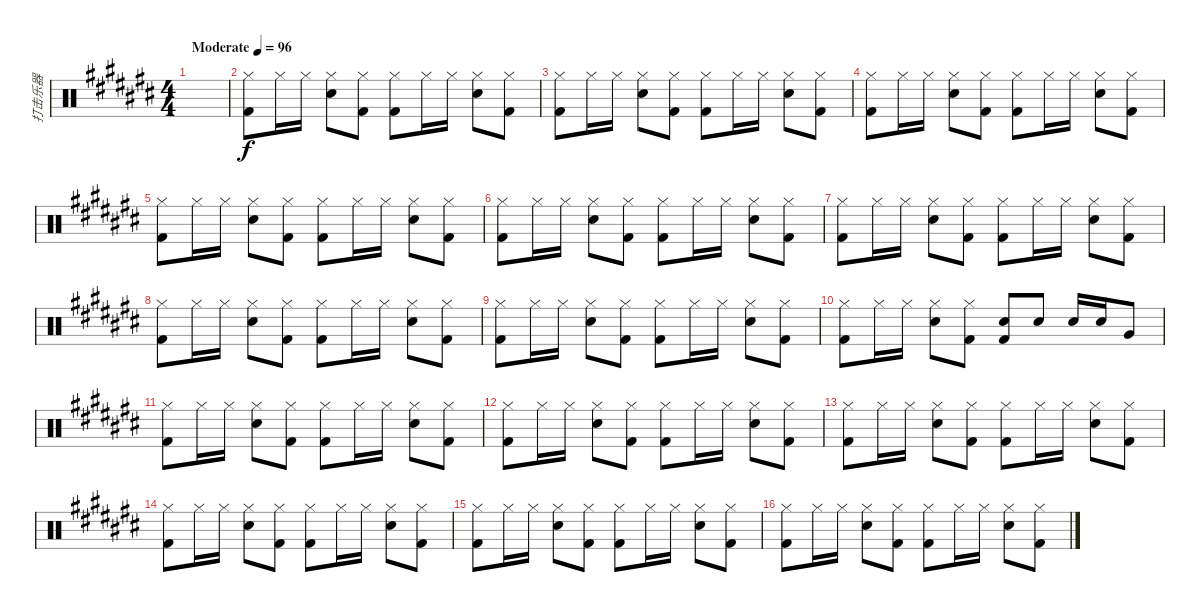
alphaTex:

\track ("打击乐器" "打击乐器") {instrument percussion}
\staff {score}
\articulation defaults
\ts (4 4)
\tempo (96 "Moderate")
\clef neutral
\ks c#
|
("Hi-Hat (closed)" "Kick (hit) 2").8 "Hi-Hat (closed)".16 "Hi-Hat (closed)".16 ("Hi-Hat (closed)" "Snare (hit) 2").8 ("Hi-Hat (closed)" "Kick (hit) 2").8 ("Hi-Hat (closed)" "Kick (hit) 2").8 "Hi-Hat (closed)".16 "Hi-Hat (closed)".16 ("Hi-Hat (closed)" "Snare (hit) 2").8 ("Hi-Hat (closed)" "Kick (hit) 2").8 |
("Hi-Hat (closed)" "Kick (hit) 2").8 "Hi-Hat (closed)".16 "Hi-Hat (closed)".16 ("Hi-Hat (closed)" "Snare (hit) 2").8 ("Hi-Hat (closed)" "Kick (hit) 2").8 ("Hi-Hat (closed)" "Kick (hit) 2").8 "Hi-Hat (closed)".16 "Hi-Hat (closed)".16 ("Hi-Hat (closed)" "Snare (hit) 2").8 ("Hi-Hat (closed)" "Kick (hit) 2").8 |
("Hi-Hat (closed)" "Kick (hit) 2").8 "Hi-Hat (closed)".16 "Hi-Hat (closed)".16 ("Hi-Hat (closed)" "Snare (hit) 2").8 ("Hi-Hat (closed)" "Kick (hit) 2").8 ("Hi-Hat (closed)" "Kick (hit) 2").8 "Hi-Hat (closed)".16 "Hi-Hat (closed)".16 ("Hi-Hat (closed)" "Snare (hit) 2").8 ("Hi-Hat (closed)" "Kick (hit) 2").8 |
("Hi-Hat (closed)" "Kick (hit) 2").8 "Hi-Hat (closed)".16 "Hi-Hat (closed)".16 ("Hi-Hat (closed)" "Snare (hit) 2").8 ("Hi-Hat (closed)" "Kick (hit) 2").8 ("Hi-Hat (closed)" "Kick (hit) 2").8 "Hi-Hat (closed)".16 "Hi-Hat (closed)".16 ("Hi-Hat (closed)" "Snare (hit) 2").8 ("Hi-Hat (closed)" "Kick (hit) 2").8 |
("Hi-Hat (closed)" "Kick (hit) 2").8 "Hi-Hat (closed)".16 "Hi-Hat (closed)".16 ("Hi-Hat (closed)" "Snare (hit) 2").8 ("Hi-Hat (closed)" "Kick (hit) 2").8 ("Hi-Hat (closed)" "Kick (hit) 2").8 "Hi-Hat (closed)".16 "Hi-Hat (closed)".16 ("Hi-Hat (closed)" "Snare (hit) 2").8 ("Hi-Hat (closed)" "Kick (hit) 2").8 |
("Hi-Hat (closed)" "Kick (hit) 2").8 "Hi-Hat (closed)".16 "Hi-Hat (closed)".16 ("Hi-Hat (closed)" "Snare (hit) 2").8 ("Hi-Hat (closed)" "Kick (hit) 2").8 ("Hi-Hat (closed)" "Kick (hit) 2").8 "Hi-Hat (closed)".16 "Hi-Hat (closed)".16 ("Hi-Hat (closed)" "Snare (hit) 2").8 ("Hi-Hat (closed)" "Kick (hit) 2").8 |
("Hi-Hat (closed)" "Kick (hit) 2").8 "Hi-Hat (closed)".16 "Hi-Hat (closed)".16 ("Hi-Hat (closed)" "Snare (hit) 2").8 ("Hi-Hat (closed)" "Kick (hit) 2").8 ("Hi-Hat (closed)" "Kick (hit) 2").8 "Hi-Hat (closed)".16 "Hi-Hat (closed)".16 ("Hi-Hat (closed)" "Snare (hit) 2").8 ("Hi-Hat (closed)" "Kick (hit) 2").8 |
("Hi-Hat (closed)" "Kick (hit) 2").8 "Hi-Hat (closed)".16 "Hi-Hat (closed)".16 ("Hi-Hat (closed)" "Snare (hit) 2").8 ("Hi-Hat (closed)" "Kick (hit) 2").8 ("Hi-Hat (closed)" "Kick (hit) 2").8 "Hi-Hat (closed)".16 "Hi-Hat (closed)".16 ("Hi-Hat (closed)" "Snare (hit) 2").8 ("Hi-Hat (closed)" "Kick (hit) 2").8 |
("Hi-Hat (closed)" "Kick (hit) 2").8 "Hi-Hat (closed)".16 "Hi-Hat (closed)".16 ("Hi-Hat (closed)" "Snare (hit) 2").8 ("Hi-Hat (closed)" "Kick (hit) 2").8 ("Snare (hit) 2" "Kick (hit) 2").8 "Snare (hit) 2".8 "Snare (hit) 2".16 "Snare (hit) 2".16 "Very Low Tom (hit)".8 |
("Hi-Hat (closed)" "Kick (hit) 2").8 "Hi-Hat (closed)".16 "Hi-Hat (closed)".16 ("Hi-Hat (closed)" "Snare (hit) 2").8 ("Hi-Hat (closed)" "Kick (hit) 2").8 ("Hi-Hat (closed)" "Kick (hit) 2").8 "Hi-Hat (closed)".16 "Hi-Hat (closed)".16 ("Hi-Hat (closed)" "Snare (hit) 2").8 ("Hi-Hat (closed)" "Kick (hit) 2").8 |
("Hi-Hat (closed)" "Kick (hit) 2").8 "Hi-Hat (closed)".16 "Hi-Hat (closed)".16 ("Hi-Hat (closed)" "Snare (hit) 2").8 ("Hi-Hat (closed)" "Kick (hit) 2").8 ("Hi-Hat (closed)" "Kick (hit) 2").8 "Hi-Hat (closed)".16 "Hi-Hat (closed)".16 ("Hi-Hat (closed)" "Snare (hit) 2").8 ("Hi-Hat (closed)" "Kick (hit) 2").8 |
("Hi-Hat (closed)" "Kick (hit) 2").8 "Hi-Hat (closed)".16 "Hi-Hat (closed)".16 ("Hi-Hat (closed)" "Snare (hit) 2").8 ("Hi-Hat (closed)" "Kick (hit) 2").8 ("Hi-Hat (closed)" "Kick (hit) 2").8 "Hi-Hat (closed)".16 "Hi-Hat (closed)".16 ("Hi-Hat (closed)" "Snare (hit) 2").8 ("Hi-Hat (closed)" "Kick (hit) 2").8 |
("Hi-Hat (closed)" "Kick (hit) 2").8 "Hi-Hat (closed)".16 "Hi-Hat (closed)".16 ("Hi-Hat (closed)" "Snare (hit) 2").8 ("Hi-Hat (closed)" "Kick (hit) 2").8 ("Hi-Hat (closed)" "Kick (hit) 2").8 "Hi-Hat (closed)".16 "Hi-Hat (closed)".16 ("Hi-Hat (closed)" "Snare (hit) 2").8 ("Hi-Hat (closed)" "Kick (hit) 2").8 |
("Hi-Hat (closed)" "Kick (hit) 2").8 "Hi-Hat (closed)".16 "Hi-Hat (closed)".16 ("Hi-Hat (closed)" "Snare (hit) 2").8 ("Hi-Hat (closed)" "Kick (hit) 2").8 ("Hi-Hat (closed)" "Kick (hit) 2").8 "Hi-Hat (closed)".16 "Hi-Hat (closed)".16 ("Hi-Hat (closed)" "Snare (hit) 2").8 ("Hi-Hat (closed)" "Kick (hit) 2").8 |
("Hi-Hat (closed)" "Kick (hit) 2").8 "Hi-Hat (closed)".16 "Hi-Hat (closed)".16 ("Hi-Hat (closed)" "Snare (hit) 2").8 ("Hi-Hat (closed)" "Kick (hit) 2").8 ("Hi-Hat (closed)" "Kick (hit) 2").8 "Hi-Hat (closed)".16 "Hi-Hat (closed)".16 ("Hi-Hat (closed)" "Snare (hit) 2").8 ("Hi-Hat (closed)" "Kick (hit) 2").8
